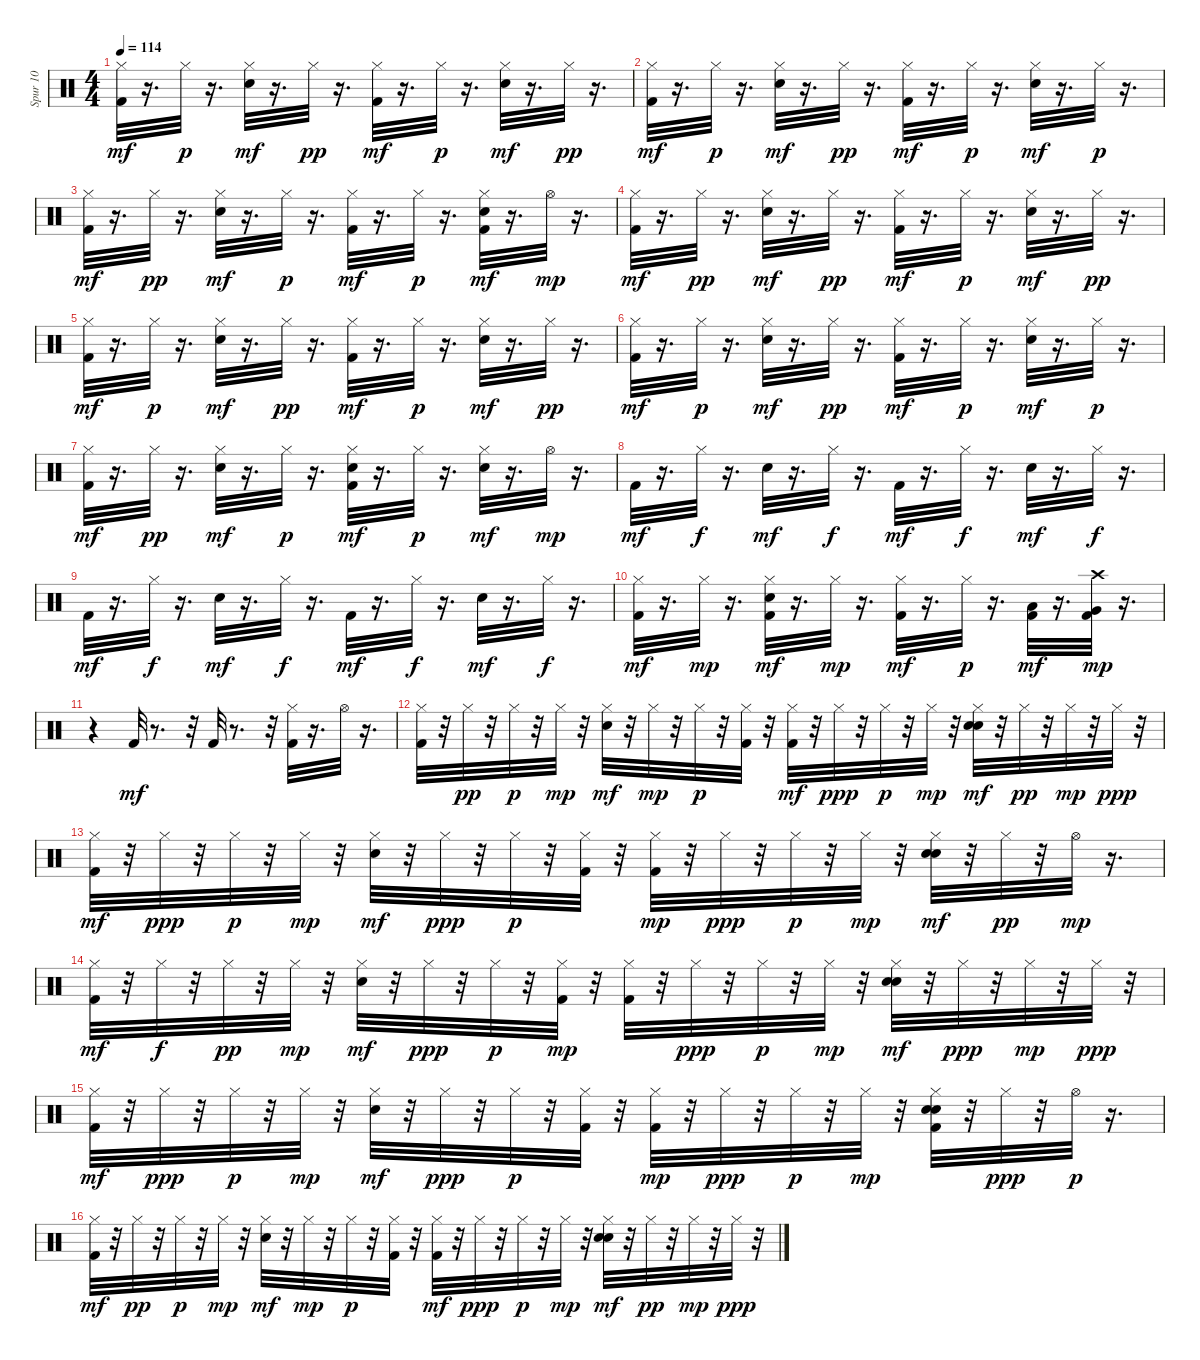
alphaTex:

\track ("Spur 10" "Spur 10") {instrument percussion}
\staff {score}
\articulation defaults
\ts (4 4)
\tempo 114
\clef neutral
\ks c
("Hi-Hat (closed)" "Kick (hit) 2").32{dy mf} r.16{d} "Hi-Hat (closed)".32{dy p} r.16{d} ("Hi-Hat (closed)" "Electric Snare (hit)").32{dy mf} r.16{d} "Hi-Hat (closed)".32{dy pp} r.16{d} ("Hi-Hat (closed)" "Kick (hit) 2").32{dy mf} r.16{d} "Hi-Hat (closed)".32{dy p} r.16{d} ("Hi-Hat (closed)" "Electric Snare (hit)").32{dy mf} r.16{d} "Hi-Hat (closed)".32{dy pp} r.16{d} |
("Hi-Hat (closed)" "Kick (hit) 2").32{dy mf} r.16{d} "Hi-Hat (closed)".32{dy p} r.16{d} ("Hi-Hat (closed)" "Electric Snare (hit)").32{dy mf} r.16{d} "Hi-Hat (closed)".32{dy pp} r.16{d} ("Hi-Hat (closed)" "Kick (hit) 2").32{dy mf} r.16{d} "Hi-Hat (closed)".32{dy p} r.16{d} ("Hi-Hat (closed)" "Electric Snare (hit)").32{dy mf} r.16{d} "Hi-Hat (closed)".32{dy p} r.16{d} |
("Hi-Hat (closed)" "Kick (hit) 2").32{dy mf} r.16{d} "Hi-Hat (closed)".32{dy pp} r.16{d} ("Hi-Hat (closed)" "Electric Snare (hit)").32{dy mf} r.16{d} "Hi-Hat (closed)".32{dy p} r.16{d} ("Hi-Hat (closed)" "Kick (hit) 2").32{dy mf} r.16{d} "Hi-Hat (closed)".32{dy p} r.16{d} ("Hi-Hat (closed)" "Electric Snare (hit)" "Kick (hit) 2").32{dy mf} r.16{d} "Hi-Hat (open)".32{dy mp} r.16{d} |
("Hi-Hat (closed)" "Kick (hit) 2").32{dy mf} r.16{d} "Hi-Hat (closed)".32{dy pp} r.16{d} ("Hi-Hat (closed)" "Electric Snare (hit)").32{dy mf} r.16{d} "Hi-Hat (closed)".32{dy pp} r.16{d} ("Hi-Hat (closed)" "Kick (hit) 2").32{dy mf} r.16{d} "Hi-Hat (closed)".32{dy p} r.16{d} ("Hi-Hat (closed)" "Electric Snare (hit)").32{dy mf} r.16{d} "Hi-Hat (closed)".32{dy pp} r.16{d} |
("Hi-Hat (closed)" "Kick (hit) 2").32{dy mf} r.16{d} "Hi-Hat (closed)".32{dy p} r.16{d} ("Hi-Hat (closed)" "Electric Snare (hit)").32{dy mf} r.16{d} "Hi-Hat (closed)".32{dy pp} r.16{d} ("Hi-Hat (closed)" "Kick (hit) 2").32{dy mf} r.16{d} "Hi-Hat (closed)".32{dy p} r.16{d} ("Hi-Hat (closed)" "Electric Snare (hit)").32{dy mf} r.16{d} "Hi-Hat (closed)".32{dy pp} r.16{d} |
("Hi-Hat (closed)" "Kick (hit) 2").32{dy mf} r.16{d} "Hi-Hat (closed)".32{dy p} r.16{d} ("Hi-Hat (closed)" "Electric Snare (hit)").32{dy mf} r.16{d} "Hi-Hat (closed)".32{dy pp} r.16{d} ("Hi-Hat (closed)" "Kick (hit) 2").32{dy mf} r.16{d} "Hi-Hat (closed)".32{dy p} r.16{d} ("Hi-Hat (closed)" "Electric Snare (hit)").32{dy mf} r.16{d} "Hi-Hat (closed)".32{dy p} r.16{d} |
("Hi-Hat (closed)" "Kick (hit) 2").32{dy mf} r.16{d} "Hi-Hat (closed)".32{dy pp} r.16{d} ("Hi-Hat (closed)" "Electric Snare (hit)").32{dy mf} r.16{d} "Hi-Hat (closed)".32{dy p} r.16{d} ("Hi-Hat (closed)" "Kick (hit) 2" "Electric Snare (hit)").32{dy mf} r.16{d} "Hi-Hat (closed)".32{dy p} r.16{d} ("Hi-Hat (closed)" "Electric Snare (hit)").32{dy mf} r.16{d} "Hi-Hat (open)".32{dy mp} r.16{d} |
"Kick (hit) 2".32{dy mf} r.16{d} "Hi-Hat (closed)".32{dy f} r.16{d} "Electric Snare (hit)".32{dy mf} r.16{d} "Hi-Hat (closed)".32{dy f} r.16{d} "Kick (hit) 2".32{dy mf} r.16{d} "Hi-Hat (closed)".32{dy f} r.16{d} "Electric Snare (hit)".32{dy mf} r.16{d} "Hi-Hat (closed)".32{dy f} r.16{d} |
"Kick (hit) 2".32{dy mf} r.16{d} "Hi-Hat (closed)".32{dy f} r.16{d} "Electric Snare (hit)".32{dy mf} r.16{d} "Hi-Hat (closed)".32{dy f} r.16{d} "Kick (hit) 2".32{dy mf} r.16{d} "Hi-Hat (closed)".32{dy f} r.16{d} "Electric Snare (hit)".32{dy mf} r.16{d} "Hi-Hat (closed)".32{dy f} r.16{d} |
("Kick (hit) 2" "Hi-Hat (closed)").32{dy mf} r.16{d} "Hi-Hat (closed)".32{dy mp} r.16{d} ("Kick (hit) 2" "Electric Snare (hit)" "Hi-Hat (closed)").32{dy mf} r.16{d} "Hi-Hat (closed)".32{dy mp} r.16{d} ("Kick (hit) 2" "Hi-Hat (closed)").32{dy mf} r.16{d} "Hi-Hat (closed)".32{dy p} r.16{d} ("Kick (hit) 2" "Low Tom (hit)").32{dy mf} r.16{d} ("Kick (hit) 2" "Very Low Tom (hit)" "Crash high (hit)").32{dy mp} r.16{d} |
r.4 "Kick (hit) 2".32{dy mf} r.8{d} r.32 "Kick (hit) 2".32 r.8{d} r.32 ("Hi-Hat (closed)" "Kick (hit) 2").32 r.16{d} "Hi-Hat (open)".32 r.16{d} |
("Hi-Hat (closed)" "Kick (hit) 2").32 r.32 "Hi-Hat (closed)".32{dy pp} r.32 "Hi-Hat (closed)".32{dy p} r.32 "Hi-Hat (closed)".32{dy mp} r.32 ("Hi-Hat (closed)" "Electric Snare (hit)").32{dy mf} r.32 "Hi-Hat (closed)".32{dy mp} r.32 "Hi-Hat (closed)".32{dy p} r.32 ("Hi-Hat (closed)" "Kick (hit) 2").32 r.32 ("Hi-Hat (closed)" "Kick (hit) 2").32{dy mf} r.32 "Hi-Hat (closed)".32{dy ppp} r.32 "Hi-Hat (closed)".32{dy p} r.32 "Hi-Hat (closed)".32{dy mp} r.32 ("Hand Clap (hit)" "Hi-Hat (closed)" "Electric Snare (hit)").32{dy mf} r.32 "Hi-Hat (closed)".32{dy pp} r.32 "Hi-Hat (closed)".32{dy mp} r.32 "Hi-Hat (closed)".32{dy ppp} r.32 |
("Hi-Hat (closed)" "Kick (hit) 2").32{dy mf} r.32 "Hi-Hat (closed)".32{dy ppp} r.32 "Hi-Hat (closed)".32{dy p} r.32 "Hi-Hat (closed)".32{dy mp} r.32 ("Hi-Hat (closed)" "Electric Snare (hit)").32{dy mf} r.32 "Hi-Hat (closed)".32{dy ppp} r.32 "Hi-Hat (closed)".32{dy p} r.32 ("Hi-Hat (closed)" "Kick (hit) 2").32 r.32 ("Hi-Hat (closed)" "Kick (hit) 2").32{dy mp} r.32 "Hi-Hat (closed)".32{dy ppp} r.32 "Hi-Hat (closed)".32{dy p} r.32 "Hi-Hat (closed)".32{dy mp} r.32 ("Hand Clap (hit)" "Hi-Hat (closed)" "Electric Snare (hit)").32{dy mf} r.32 "Hi-Hat (closed)".32{dy pp} r.32 "Hi-Hat (open)".32{dy mp} r.16{d} |
("Hi-Hat (closed)" "Kick (hit) 2").32{dy mf} r.32 "Hi-Hat (closed)".32{dy f} r.32 "Hi-Hat (closed)".32{dy pp} r.32 "Hi-Hat (closed)".32{dy mp} r.32 ("Hi-Hat (closed)" "Electric Snare (hit)").32{dy mf} r.32 "Hi-Hat (closed)".32{dy ppp} r.32 "Hi-Hat (closed)".32{dy p} r.32 ("Hi-Hat (closed)" "Kick (hit) 2").32{dy mp} r.32 ("Hi-Hat (closed)" "Kick (hit) 2").32 r.32 "Hi-Hat (closed)".32{dy ppp} r.32 "Hi-Hat (closed)".32{dy p} r.32 "Hi-Hat (closed)".32{dy mp} r.32 ("Hand Clap (hit)" "Hi-Hat (closed)" "Electric Snare (hit)").32{dy mf} r.32 "Hi-Hat (closed)".32{dy ppp} r.32 "Hi-Hat (closed)".32{dy mp} r.32 "Hi-Hat (closed)".32{dy ppp} r.32 |
("Hi-Hat (closed)" "Kick (hit) 2").32{dy mf} r.32 "Hi-Hat (closed)".32{dy ppp} r.32 "Hi-Hat (closed)".32{dy p} r.32 "Hi-Hat (closed)".32{dy mp} r.32 ("Hi-Hat (closed)" "Electric Snare (hit)").32{dy mf} r.32 "Hi-Hat (closed)".32{dy ppp} r.32 "Hi-Hat (closed)".32{dy p} r.32 ("Hi-Hat (closed)" "Kick (hit) 2").32 r.32 ("Hi-Hat (closed)" "Kick (hit) 2").32{dy mp} r.32 "Hi-Hat (closed)".32{dy ppp} r.32 "Hi-Hat (closed)".32{dy p} r.32 "Hi-Hat (closed)".32{dy mp} r.32 ("Hand Clap (hit)" "Hi-Hat (closed)" "Electric Snare (hit)" "Kick (hit) 2").32 r.32 "Hi-Hat (closed)".32{dy ppp} r.32 "Hi-Hat (open)".32{dy p} r.16{d} |
("Hi-Hat (closed)" "Kick (hit) 2").32{dy mf} r.32 "Hi-Hat (closed)".32{dy pp} r.32 "Hi-Hat (closed)".32{dy p} r.32 "Hi-Hat (closed)".32{dy mp} r.32 ("Hi-Hat (closed)" "Electric Snare (hit)").32{dy mf} r.32 "Hi-Hat (closed)".32{dy mp} r.32 "Hi-Hat (closed)".32{dy p} r.32 ("Hi-Hat (closed)" "Kick (hit) 2").32 r.32 ("Hi-Hat (closed)" "Kick (hit) 2").32{dy mf} r.32 "Hi-Hat (closed)".32{dy ppp} r.32 "Hi-Hat (closed)".32{dy p} r.32 "Hi-Hat (closed)".32{dy mp} r.32 ("Hand Clap (hit)" "Hi-Hat (closed)" "Electric Snare (hit)").32{dy mf} r.32 "Hi-Hat (closed)".32{dy pp} r.32 "Hi-Hat (closed)".32{dy mp} r.32 "Hi-Hat (closed)".32{dy ppp} r.32
